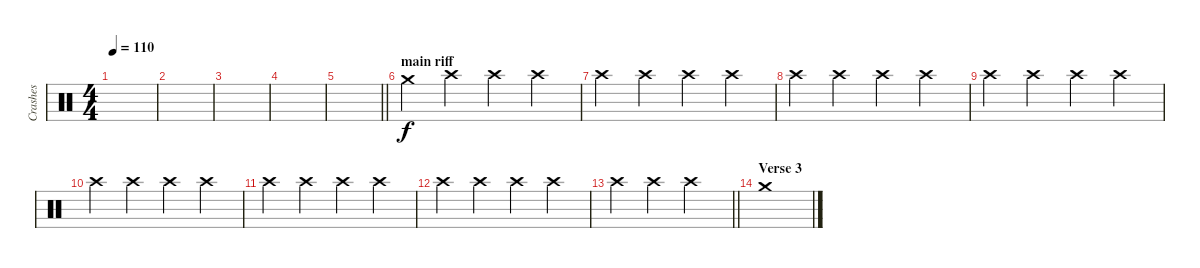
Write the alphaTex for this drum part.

\track ("Crashes" "Crashes") {instrument percussion}
\staff {score}
\articulation defaults
\ts (4 4)
\tempo 110
\clef neutral
\ks c
|
|
|
|
\barLineRight lightlight
|
\section ("" "main riff")
"Crash medium (hit)".4 "Crash high (hit)".4 "Crash high (hit)".4 "Crash high (hit)".4 |
"Crash high (hit)".4 "Crash high (hit)".4 "Crash high (hit)".4 "Crash high (hit)".4 |
"Crash high (hit)".4 "Crash high (hit)".4 "Crash high (hit)".4 "Crash high (hit)".4 |
"Crash high (hit)".4 "Crash high (hit)".4 "Crash high (hit)".4 "Crash high (hit)".4 |
"Crash high (hit)".4 "Crash high (hit)".4 "Crash high (hit)".4 "Crash high (hit)".4 |
"Crash high (hit)".4 "Crash high (hit)".4 "Crash high (hit)".4 "Crash high (hit)".4 |
"Crash high (hit)".4 "Crash high (hit)".4 "Crash high (hit)".4 "Crash high (hit)".4 |
\barLineRight lightlight "Crash high (hit)".4 "Crash high (hit)".4 "Crash high (hit)".2
|
\section ("" "Verse 3")
"Crash medium (hit)".1
